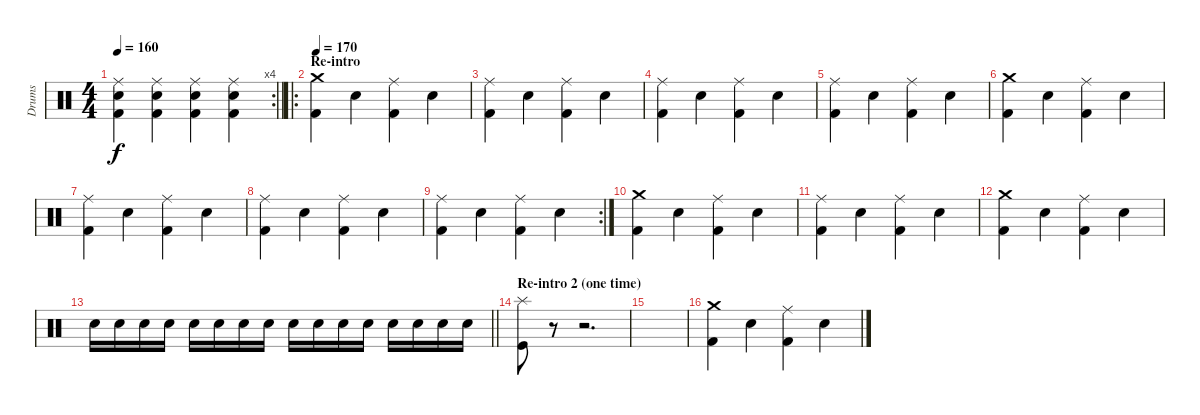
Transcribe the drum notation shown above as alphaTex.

\track ("Drums" "Drums") {instrument percussion}
\staff {score}
\articulation defaults
\rc 4
\ts (4 4)
\tempo 160
\clef neutral
\barLineRight lightlight
\ks c
("Ride (middle)" "Electric Snare (hit)" "Kick (hit) 2").4{dy f} ("Ride (middle)" "Electric Snare (hit)" "Kick (hit) 2").4 ("Ride (middle)" "Electric Snare (hit)" "Kick (hit) 2").4 ("Ride (middle)" "Electric Snare (hit)" "Kick (hit) 2").4 |
\ro
\section ("" "Re-intro")
\tempo 170
("Crash medium (hit)" "Kick (hit) 2").4 "Electric Snare (hit)".4 ("Ride (middle)" "Kick (hit) 2").4 "Electric Snare (hit)".4 |
("Ride (middle)" "Kick (hit) 2").4 "Electric Snare (hit)".4 ("Ride (middle)" "Kick (hit) 2").4 "Electric Snare (hit)".4 |
("Ride (middle)" "Kick (hit) 2").4 "Electric Snare (hit)".4 ("Ride (middle)" "Kick (hit) 2").4 "Electric Snare (hit)".4 |
("Ride (middle)" "Kick (hit) 2").4 "Electric Snare (hit)".4 ("Ride (middle)" "Kick (hit) 2").4 "Electric Snare (hit)".4 |
("Crash medium (hit)" "Kick (hit) 2").4 "Electric Snare (hit)".4 ("Ride (middle)" "Kick (hit) 2").4 "Electric Snare (hit)".4 |
("Ride (middle)" "Kick (hit) 2").4 "Electric Snare (hit)".4 ("Ride (middle)" "Kick (hit) 2").4 "Electric Snare (hit)".4 |
("Ride (middle)" "Kick (hit) 2").4 "Electric Snare (hit)".4 ("Ride (middle)" "Kick (hit) 2").4 "Electric Snare (hit)".4 |
\rc 2
("Ride (middle)" "Kick (hit) 2").4 "Electric Snare (hit)".4 ("Ride (middle)" "Kick (hit) 2").4 "Electric Snare (hit)".4 |
("Crash medium (hit)" "Kick (hit) 2").4 "Electric Snare (hit)".4 ("Ride (middle)" "Kick (hit) 2").4 "Electric Snare (hit)".4 |
("Ride (middle)" "Kick (hit) 2").4 "Electric Snare (hit)".4 ("Ride (middle)" "Kick (hit) 2").4 "Electric Snare (hit)".4 |
("Crash medium (hit)" "Kick (hit) 2").4 "Electric Snare (hit)".4 ("Ride (middle)" "Kick (hit) 2").4 "Electric Snare (hit)".4 |
\barLineRight lightlight "Snare (hit) 2".16 "Snare (hit) 2".16 "Snare (hit) 2".16 "Snare (hit) 2".16 "Snare (hit) 2".16 "Snare (hit) 2".16 "Snare (hit) 2".16 "Snare (hit) 2".16 "Snare (hit) 2".16 "Snare (hit) 2".16 "Snare (hit) 2".16 "Snare (hit) 2".16 "Snare (hit) 2".16 "Snare (hit) 2".16 "Snare (hit) 2".16 "Snare (hit) 2".16
|
\section ("" "Re-intro 2 (one time)")
("Kick (hit)" "Splash (hit)").8 r.8 r.2{d} |
|
("Crash medium (hit)" "Kick (hit) 2").4 "Electric Snare (hit)".4 ("Ride (middle)" "Kick (hit) 2").4 "Electric Snare (hit)".4
